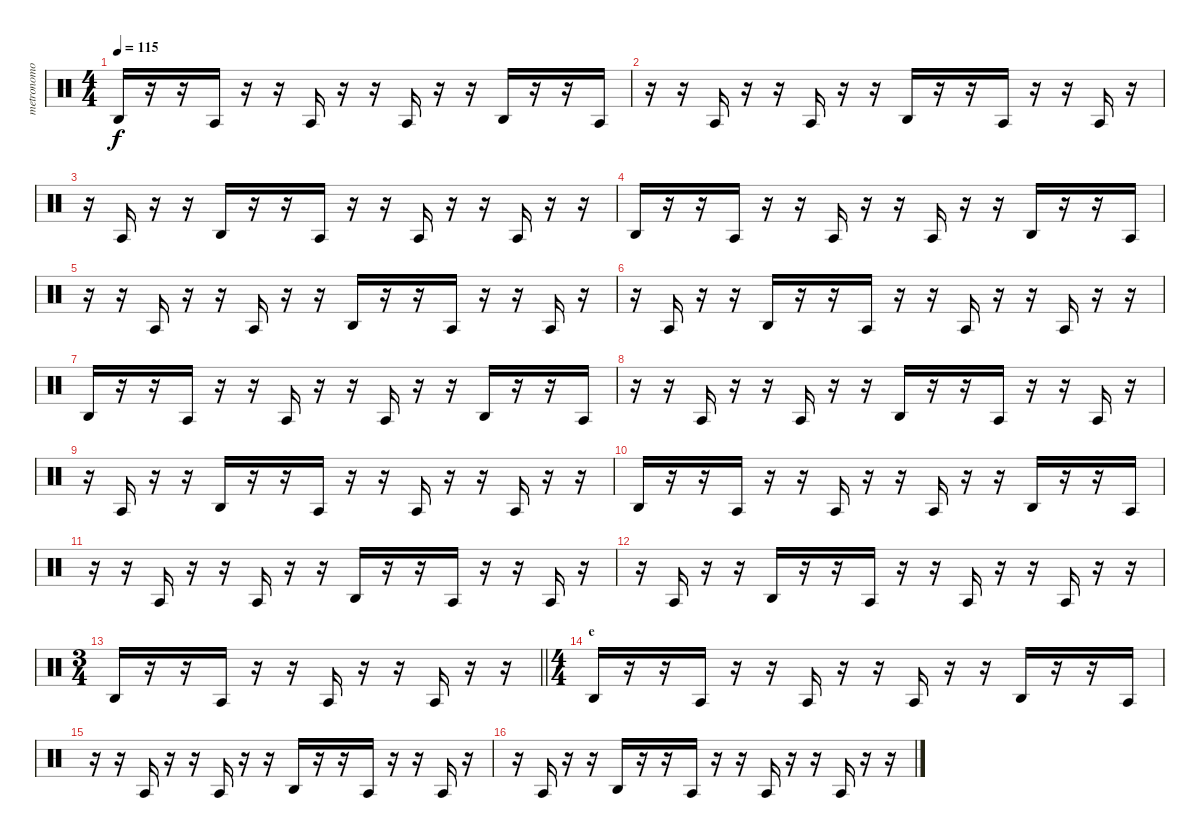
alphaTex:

\track ("metronomo" "metronomo") {instrument percussion}
\staff {score}
\articulation defaults
\ts (4 4)
\tempo 115
\clef neutral
\ks c "Agogo high (hit)".16{dy f}
r.16 r.16 "Agogo tow (hit)".16 r.16 r.16 "Agogo tow (hit)".16 r.16 r.16 "Agogo tow (hit)".16 r.16 r.16 "Agogo high (hit)".16 r.16 r.16 "Agogo tow (hit)".16 |
r.16 r.16 "Agogo tow (hit)".16 r.16 r.16 "Agogo tow (hit)".16 r.16 r.16 "Agogo high (hit)".16 r.16 r.16 "Agogo tow (hit)".16 r.16 r.16 "Agogo tow (hit)".16 r.16 |
r.16 "Agogo tow (hit)".16 r.16 r.16 "Agogo high (hit)".16 r.16 r.16 "Agogo tow (hit)".16 r.16 r.16 "Agogo tow (hit)".16 r.16 r.16 "Agogo tow (hit)".16 r.16 r.16 |
"Agogo high (hit)".16 r.16 r.16 "Agogo tow (hit)".16 r.16 r.16 "Agogo tow (hit)".16 r.16 r.16 "Agogo tow (hit)".16 r.16 r.16 "Agogo high (hit)".16 r.16 r.16 "Agogo tow (hit)".16 |
r.16 r.16 "Agogo tow (hit)".16 r.16 r.16 "Agogo tow (hit)".16 r.16 r.16 "Agogo high (hit)".16 r.16 r.16 "Agogo tow (hit)".16 r.16 r.16 "Agogo tow (hit)".16 r.16 |
r.16 "Agogo tow (hit)".16 r.16 r.16 "Agogo high (hit)".16 r.16 r.16 "Agogo tow (hit)".16 r.16 r.16 "Agogo tow (hit)".16 r.16 r.16 "Agogo tow (hit)".16 r.16 r.16 |
"Agogo high (hit)".16 r.16 r.16 "Agogo tow (hit)".16 r.16 r.16 "Agogo tow (hit)".16 r.16 r.16 "Agogo tow (hit)".16 r.16 r.16 "Agogo high (hit)".16 r.16 r.16 "Agogo tow (hit)".16 |
r.16 r.16 "Agogo tow (hit)".16 r.16 r.16 "Agogo tow (hit)".16 r.16 r.16 "Agogo high (hit)".16 r.16 r.16 "Agogo tow (hit)".16 r.16 r.16 "Agogo tow (hit)".16 r.16 |
r.16 "Agogo tow (hit)".16 r.16 r.16 "Agogo high (hit)".16 r.16 r.16 "Agogo tow (hit)".16 r.16 r.16 "Agogo tow (hit)".16 r.16 r.16 "Agogo tow (hit)".16 r.16 r.16 |
"Agogo high (hit)".16 r.16 r.16 "Agogo tow (hit)".16 r.16 r.16 "Agogo tow (hit)".16 r.16 r.16 "Agogo tow (hit)".16 r.16 r.16 "Agogo high (hit)".16 r.16 r.16 "Agogo tow (hit)".16 |
r.16 r.16 "Agogo tow (hit)".16 r.16 r.16 "Agogo tow (hit)".16 r.16 r.16 "Agogo high (hit)".16 r.16 r.16 "Agogo tow (hit)".16 r.16 r.16 "Agogo tow (hit)".16 r.16 |
r.16 "Agogo tow (hit)".16 r.16 r.16 "Agogo high (hit)".16 r.16 r.16 "Agogo tow (hit)".16 r.16 r.16 "Agogo tow (hit)".16 r.16 r.16 "Agogo tow (hit)".16 r.16 r.16 |
\ts (3 4)
\barLineRight lightlight "Agogo high (hit)".16
r.16 r.16 "Agogo tow (hit)".16 r.16 r.16 "Agogo tow (hit)".16 r.16 r.16 "Agogo tow (hit)".16 r.16 r.16 |
\ts (4 4)
\section ("" "e")
"Agogo high (hit)".16 r.16 r.16 "Agogo tow (hit)".16 r.16 r.16 "Agogo tow (hit)".16 r.16 r.16 "Agogo tow (hit)".16 r.16 r.16 "Agogo high (hit)".16 r.16 r.16 "Agogo tow (hit)".16 |
r.16 r.16 "Agogo tow (hit)".16 r.16 r.16 "Agogo tow (hit)".16 r.16 r.16 "Agogo high (hit)".16 r.16 r.16 "Agogo tow (hit)".16 r.16 r.16 "Agogo tow (hit)".16 r.16 |
r.16 "Agogo tow (hit)".16 r.16 r.16 "Agogo high (hit)".16 r.16 r.16 "Agogo tow (hit)".16 r.16 r.16 "Agogo tow (hit)".16 r.16 r.16 "Agogo tow (hit)".16 r.16 r.16
